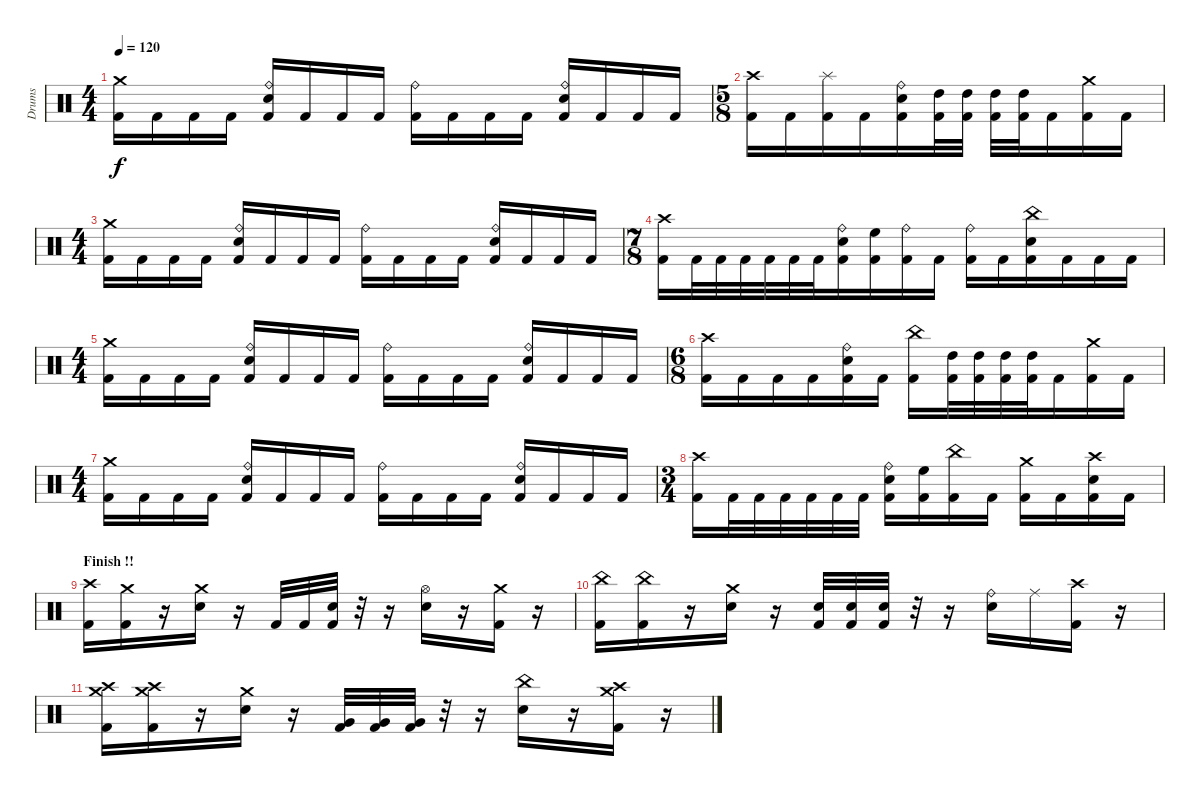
\track ("Drums" "Drums") {instrument percussion}
\staff {score}
\articulation defaults
\ts (4 4)
\tempo 120
\clef neutral
\ks c
("Crash medium (hit)" "Kick (hit) 2").16{dy f} "Kick (hit) 2".16 "Kick (hit) 2".16 "Kick (hit) 2".16 ("Ride (bell)" "Electric Snare (hit)" "Kick (hit) 2").16 "Kick (hit) 2".16 "Kick (hit) 2".16 "Kick (hit) 2".16 ("Ride (bell)" "Kick (hit) 2").16 "Kick (hit) 2".16 "Kick (hit) 2".16 "Kick (hit) 2".16 ("Ride (bell)" "Electric Snare (hit)" "Kick (hit) 2").16 "Kick (hit) 2".16 "Kick (hit) 2".16 "Kick (hit) 2".16 |
\ts (5 8)
("Crash high (hit)" "Kick (hit) 2").16 "Kick (hit) 2".16 ("Splash (hit)" "Kick (hit) 2").16 "Kick (hit) 2".16 ("Ride (bell)" "Electric Snare (hit)" "Kick (hit) 2").16 ("High Tom (hit)" "Kick (hit) 2").32 ("High Tom (hit)" "Kick (hit) 2").32 ("High Tom (hit)" "Kick (hit) 2").32 ("High Tom (hit)" "Kick (hit) 2").32 "Kick (hit) 2".16 ("Crash medium (hit)" "Kick (hit) 2").16 "Kick (hit) 2".16 |
\ts (4 4)
("Crash medium (hit)" "Kick (hit) 2").16 "Kick (hit) 2".16 "Kick (hit) 2".16 "Kick (hit) 2".16 ("Ride (bell)" "Electric Snare (hit)" "Kick (hit) 2").16 "Kick (hit) 2".16 "Kick (hit) 2".16 "Kick (hit) 2".16 ("Ride (bell)" "Kick (hit) 2").16 "Kick (hit) 2".16 "Kick (hit) 2".16 "Kick (hit) 2".16 ("Ride (bell)" "Electric Snare (hit)" "Kick (hit) 2").16 "Kick (hit) 2".16 "Kick (hit) 2".16 "Kick (hit) 2".16 |
\ts (7 8)
("Crash high (hit)" "Kick (hit) 2").16 "Kick (hit) 2".32 "Kick (hit) 2".32 "Kick (hit) 2".32 "Kick (hit) 2".32 "Kick (hit) 2".32 "Kick (hit) 2".32 ("Ride (bell)" "Electric Snare (hit)" "Kick (hit) 2").16 ("High Floor Tom (hit)" "Kick (hit) 2").16 ("Ride (bell)" "Kick (hit) 2").16 "Kick (hit) 2".16 ("Ride (bell)" "Kick (hit) 2").16 "Kick (hit) 2".16 ("China (hit)" "Electric Snare (hit)" "Kick (hit) 2").16 "Kick (hit) 2".16 "Kick (hit) 2".16 "Kick (hit) 2".16 |
\ts (4 4)
("Crash medium (hit)" "Kick (hit) 2").16 "Kick (hit) 2".16 "Kick (hit) 2".16 "Kick (hit) 2".16 ("Ride (bell)" "Electric Snare (hit)" "Kick (hit) 2").16 "Kick (hit) 2".16 "Kick (hit) 2".16 "Kick (hit) 2".16 ("Ride (bell)" "Kick (hit) 2").16 "Kick (hit) 2".16 "Kick (hit) 2".16 "Kick (hit) 2".16 ("Ride (bell)" "Electric Snare (hit)" "Kick (hit) 2").16 "Kick (hit) 2".16 "Kick (hit) 2".16 "Kick (hit) 2".16 |
\ts (6 8)
("Crash high (hit)" "Kick (hit) 2").16 "Kick (hit) 2".16 "Kick (hit) 2".16 "Kick (hit) 2".16 ("Ride (bell)" "Electric Snare (hit)" "Kick (hit) 2").16 "Kick (hit) 2".16 ("China (hit)" "Kick (hit) 2").16 ("High Tom (hit)" "Kick (hit) 2").32 ("High Tom (hit)" "Kick (hit) 2").32 ("High Tom (hit)" "Kick (hit) 2").32 ("High Tom (hit)" "Kick (hit) 2").32 "Kick (hit) 2".16 ("Crash medium (hit)" "Kick (hit) 2").16 "Kick (hit) 2".16 |
\ts (4 4)
("Crash medium (hit)" "Kick (hit) 2").16 "Kick (hit) 2".16 "Kick (hit) 2".16 "Kick (hit) 2".16 ("Ride (bell)" "Electric Snare (hit)" "Kick (hit) 2").16 "Kick (hit) 2".16 "Kick (hit) 2".16 "Kick (hit) 2".16 ("Ride (bell)" "Kick (hit) 2").16 "Kick (hit) 2".16 "Kick (hit) 2".16 "Kick (hit) 2".16 ("Ride (bell)" "Electric Snare (hit)" "Kick (hit) 2").16 "Kick (hit) 2".16 "Kick (hit) 2".16 "Kick (hit) 2".16 |
\ts (3 4)
("Crash high (hit)" "Kick (hit) 2").16 "Kick (hit) 2".32 "Kick (hit) 2".32 "Kick (hit) 2".32 "Kick (hit) 2".32 "Kick (hit) 2".32 "Kick (hit) 2".32 ("Ride (bell)" "Electric Snare (hit)" "Kick (hit) 2").16 ("High Floor Tom (hit)" "Kick (hit) 2").16 ("China (hit)" "Kick (hit) 2").16 "Kick (hit) 2".16 ("Crash medium (hit)" "Kick (hit) 2").16 "Kick (hit) 2".16 ("Crash high (hit)" "Electric Snare (hit)" "Kick (hit) 2").16 "Kick (hit) 2".16 |
\section ("" "Finish !!")
("Crash high (hit)" "Kick (hit) 2").16 ("Crash medium (hit)" "Kick (hit) 2").16 r.16 ("Crash medium (hit)" "Electric Snare (hit)").16 r.16 "Kick (hit) 2".32 "Kick (hit) 2".32 ("Electric Snare (hit)" "Kick (hit) 2").32 r.32 r.16 ("Hi-Hat (open)" "Electric Snare (hit)").16 r.16 ("Crash medium (hit)" "Kick (hit) 2").16 r.16 |
("China (hit)" "Kick (hit) 2").16 ("China (hit)" "Kick (hit) 2").16 r.16 ("Crash medium (hit)" "Electric Snare (hit)").16 r.16 ("Electric Snare (hit)" "Kick (hit) 2").32 ("Electric Snare (hit)" "Kick (hit) 2").32 ("Electric Snare (hit)" "Kick (hit) 2").32 r.32 r.16 ("Ride (bell)" "Electric Snare (hit)").16 "Ride (middle)".16 ("Crash high (hit)" "Kick (hit) 2").16 r.16 |
("Crash high (hit)" "Crash medium (hit)" "Kick (hit) 2").16 ("Crash high (hit)" "Crash medium (hit)" "Kick (hit) 2").16 r.16 ("Crash medium (hit)" "Electric Snare (hit)").16 r.16 ("Very Low Tom (hit)" "Kick (hit) 2").32 ("Very Low Tom (hit)" "Kick (hit) 2").32 ("Very Low Tom (hit)" "Kick (hit) 2").32 r.32 r.16 ("China (hit)" "Electric Snare (hit)").16 r.16 ("Crash high (hit)" "Crash medium (hit)" "Kick (hit) 2").16 r.16
